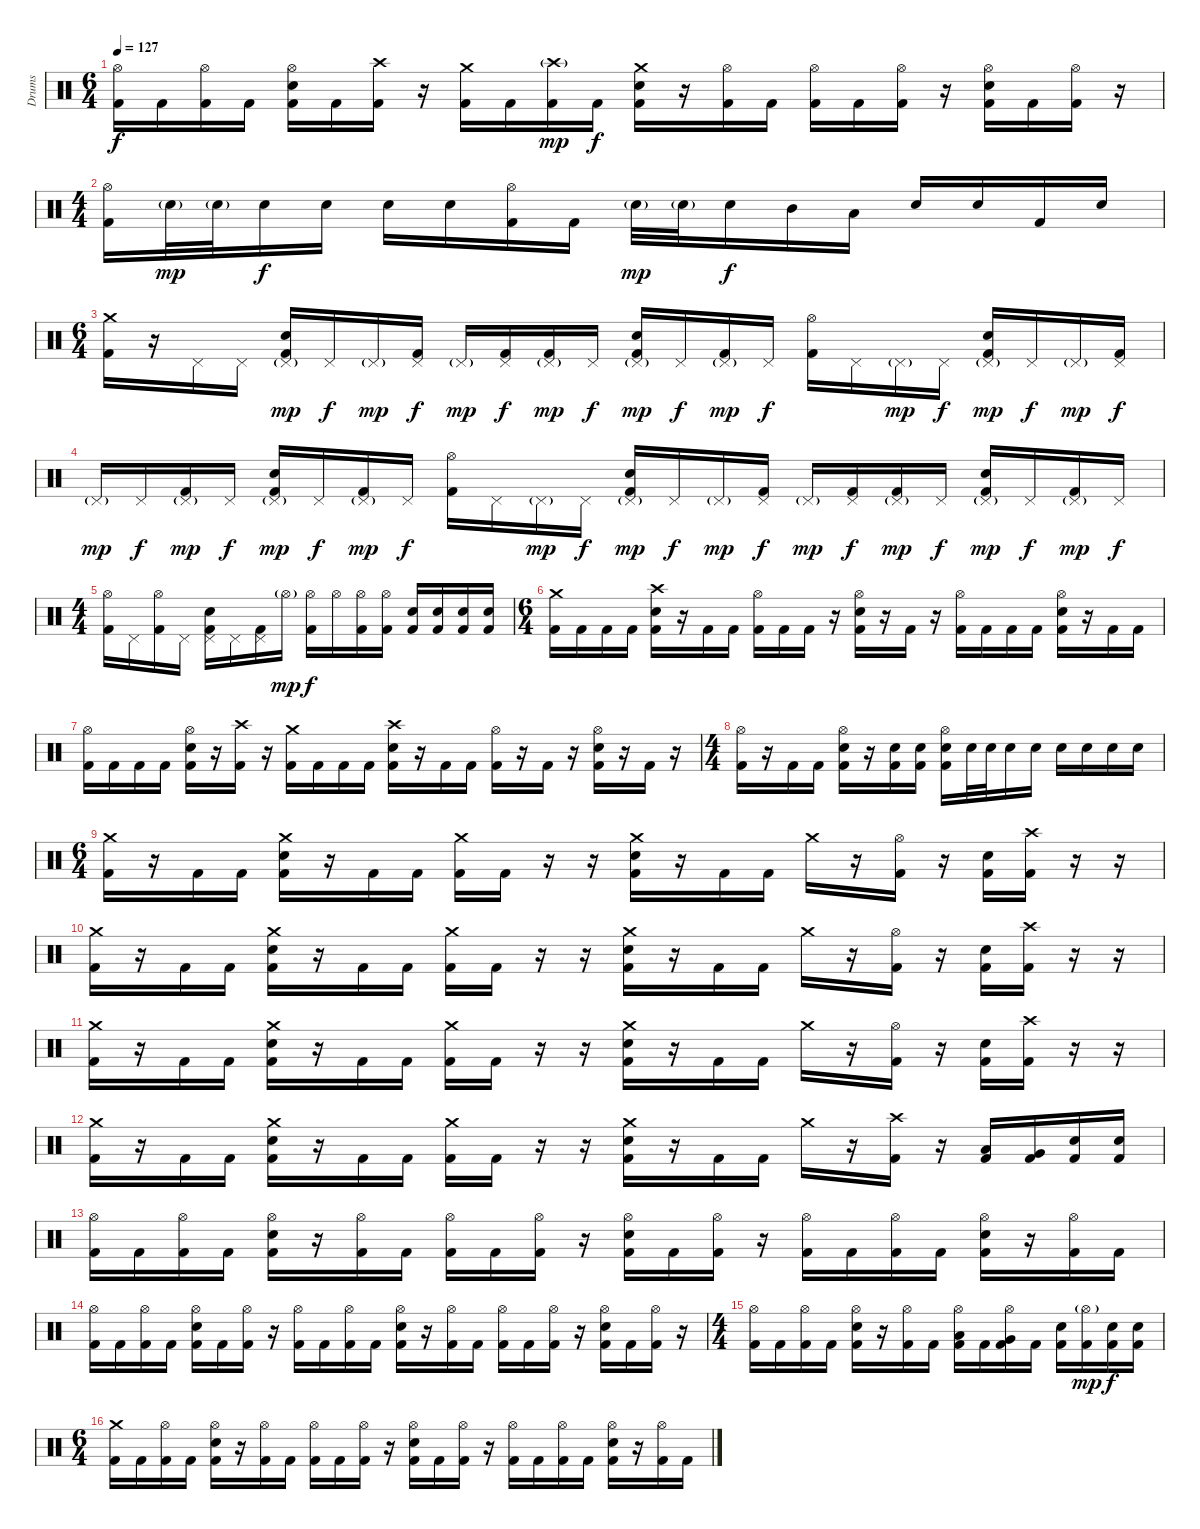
\track ("Drums" "Drums") {instrument percussion}
\staff {score}
\articulation defaults
\ts (6 4)
\tempo 127
\clef neutral
\ks c
("Hi-Hat (open)" "Kick (hit) 2").16{dy f} "Kick (hit) 2".16 ("Hi-Hat (open)" "Kick (hit) 2").16 "Kick (hit) 2".16 ("Hi-Hat (open)" "Electric Snare (hit)" "Kick (hit) 2").16 "Kick (hit) 2".16 ("Crash high (hit)" "Kick (hit) 2").16 r.16 ("Crash medium (hit)" "Kick (hit) 2").16 "Kick (hit) 2".16 ("Crash high (hit)"{g} "Kick (hit) 2").16{dy mp} "Kick (hit) 2".16{dy f} ("Crash medium (hit)" "Electric Snare (hit)" "Kick (hit) 2").16 r.16 ("Hi-Hat (open)" "Kick (hit) 2").16 "Kick (hit) 2".16 ("Hi-Hat (open)" "Kick (hit) 2").16 "Kick (hit) 2".16 ("Hi-Hat (open)" "Kick (hit) 2").16 r.16 ("Hi-Hat (open)" "Electric Snare (hit)" "Kick (hit) 2").16 "Kick (hit) 2".16 ("Hi-Hat (open)" "Kick (hit) 2").16 r.16 |
\ts (4 4)
("Hi-Hat (open)" "Kick (hit) 2").16 "Electric Snare (hit)"{g}.32{dy mp} "Electric Snare (hit)"{g}.32 "Electric Snare (hit)".16{dy f} "Electric Snare (hit)".16 "Electric Snare (hit)".16 "Electric Snare (hit)".16 ("Hi-Hat (open)" "Kick (hit) 2").16 "Kick (hit) 2".16 "Electric Snare (hit)"{g}.32{dy mp} "Electric Snare (hit)"{g}.32 "Electric Snare (hit)".16{dy f} "Mid Tom (hit)".16 "Low Tom (hit)".16 "Electric Snare (hit)".16 "Electric Snare (hit)".16 "Kick (hit) 2".16 "Electric Snare (hit)".16 |
\ts (6 4)
("Crash medium (hit)" "Kick (hit) 2").16 r.16 "Pedal Hi-Hat (hit)".16 "Pedal Hi-Hat (hit)".16 ("Pedal Hi-Hat (hit)"{g} "Electric Snare (hit)" "Kick (hit) 2").16{dy mp} "Pedal Hi-Hat (hit)".16{dy f} "Pedal Hi-Hat (hit)"{g}.16{dy mp} ("Pedal Hi-Hat (hit)" "Kick (hit) 2").16{dy f} "Pedal Hi-Hat (hit)"{g}.16{dy mp} ("Pedal Hi-Hat (hit)" "Kick (hit) 2").16{dy f} ("Pedal Hi-Hat (hit)"{g} "Kick (hit) 2").16{dy mp} "Pedal Hi-Hat (hit)".16{dy f} ("Pedal Hi-Hat (hit)"{g} "Electric Snare (hit)" "Kick (hit) 2").16{dy mp} "Pedal Hi-Hat (hit)".16{dy f} ("Pedal Hi-Hat (hit)"{g} "Kick (hit) 2").16{dy mp} "Pedal Hi-Hat (hit)".16{dy f} ("Hi-Hat (open)" "Kick (hit) 2").16 "Pedal Hi-Hat (hit)".16 "Pedal Hi-Hat (hit)"{g}.16{dy mp} "Pedal Hi-Hat (hit)".16{dy f} ("Pedal Hi-Hat (hit)"{g} "Electric Snare (hit)" "Kick (hit) 2").16{dy mp} "Pedal Hi-Hat (hit)".16{dy f} "Pedal Hi-Hat (hit)"{g}.16{dy mp} ("Pedal Hi-Hat (hit)" "Kick (hit) 2").16{dy f} |
"Pedal Hi-Hat (hit)"{g}.16{dy mp} "Pedal Hi-Hat (hit)".16{dy f} ("Pedal Hi-Hat (hit)"{g} "Kick (hit) 2").16{dy mp} "Pedal Hi-Hat (hit)".16{dy f} ("Pedal Hi-Hat (hit)"{g} "Electric Snare (hit)" "Kick (hit) 2").16{dy mp} "Pedal Hi-Hat (hit)".16{dy f} ("Pedal Hi-Hat (hit)"{g} "Kick (hit) 2").16{dy mp} "Pedal Hi-Hat (hit)".16{dy f} ("Hi-Hat (open)" "Kick (hit) 2").16 "Pedal Hi-Hat (hit)".16 "Pedal Hi-Hat (hit)"{g}.16{dy mp} "Pedal Hi-Hat (hit)".16{dy f} ("Pedal Hi-Hat (hit)"{g} "Electric Snare (hit)" "Kick (hit) 2").16{dy mp} "Pedal Hi-Hat (hit)".16{dy f} "Pedal Hi-Hat (hit)"{g}.16{dy mp} ("Pedal Hi-Hat (hit)" "Kick (hit) 2").16{dy f} "Pedal Hi-Hat (hit)"{g}.16{dy mp} ("Pedal Hi-Hat (hit)" "Kick (hit) 2").16{dy f} ("Pedal Hi-Hat (hit)"{g} "Kick (hit) 2").16{dy mp} "Pedal Hi-Hat (hit)".16{dy f} ("Pedal Hi-Hat (hit)"{g} "Electric Snare (hit)" "Kick (hit) 2").16{dy mp} "Pedal Hi-Hat (hit)".16{dy f} ("Pedal Hi-Hat (hit)"{g} "Kick (hit) 2").16{dy mp} "Pedal Hi-Hat (hit)".16{dy f} |
\ts (4 4)
("Hi-Hat (open)" "Kick (hit) 2").16 "Pedal Hi-Hat (hit)".16 ("Hi-Hat (open)" "Kick (hit) 2").16 "Pedal Hi-Hat (hit)".16 ("Pedal Hi-Hat (hit)" "Electric Snare (hit)" "Kick (hit) 2").16 "Pedal Hi-Hat (hit)".16 ("Pedal Hi-Hat (hit)" "Kick (hit) 2").16 "Hi-Hat (open)"{g}.16{dy mp} ("Hi-Hat (open)" "Kick (hit) 2").16{dy f} "Hi-Hat (open)".16 ("Hi-Hat (open)" "Kick (hit) 2").16 ("Hi-Hat (open)" "Kick (hit) 2").16 ("Electric Snare (hit)" "Kick (hit) 2").16 ("Electric Snare (hit)" "Kick (hit) 2").16 ("Electric Snare (hit)" "Kick (hit) 2").16 ("Electric Snare (hit)" "Kick (hit) 2").16 |
\ts (6 4)
("Crash medium (hit)" "Kick (hit) 2").16 "Kick (hit) 2".16 "Kick (hit) 2".16 "Kick (hit) 2".16 ("Crash high (hit)" "Electric Snare (hit)" "Kick (hit) 2").16 r.16 "Kick (hit) 2".16 "Kick (hit) 2".16 ("Hi-Hat (open)" "Kick (hit) 2").16 "Kick (hit) 2".16 "Kick (hit) 2".16 r.16 ("Hi-Hat (open)" "Electric Snare (hit)" "Kick (hit) 2").16 r.16 "Kick (hit) 2".16 r.16 ("Hi-Hat (open)" "Kick (hit) 2").16 "Kick (hit) 2".16 "Kick (hit) 2".16 "Kick (hit) 2".16 ("Hi-Hat (open)" "Electric Snare (hit)" "Kick (hit) 2").16 r.16 "Kick (hit) 2".16 "Kick (hit) 2".16 |
("Hi-Hat (open)" "Kick (hit) 2").16 "Kick (hit) 2".16 "Kick (hit) 2".16 "Kick (hit) 2".16 ("Hi-Hat (open)" "Electric Snare (hit)" "Kick (hit) 2").16 r.16 ("Crash high (hit)" "Kick (hit) 2").16 r.16 ("Crash medium (hit)" "Kick (hit) 2").16 "Kick (hit) 2".16 "Kick (hit) 2".16 "Kick (hit) 2".16 ("Crash high (hit)" "Electric Snare (hit)" "Kick (hit) 2").16 r.16 "Kick (hit) 2".16 "Kick (hit) 2".16 ("Hi-Hat (open)" "Kick (hit) 2").16 r.16 "Kick (hit) 2".16 r.16 ("Hi-Hat (open)" "Electric Snare (hit)" "Kick (hit) 2").16 r.16 "Kick (hit) 2".16 r.16 |
\ts (4 4)
("Hi-Hat (open)" "Kick (hit) 2").16 r.16 "Kick (hit) 2".16 "Kick (hit) 2".16 ("Hi-Hat (open)" "Electric Snare (hit)" "Kick (hit) 2").16 r.16 ("Electric Snare (hit)" "Kick (hit) 2").16 ("Electric Snare (hit)" "Kick (hit) 2").16 ("Hi-Hat (open)" "Electric Snare (hit)" "Kick (hit) 2").16 "Electric Snare (hit)".32 "Electric Snare (hit)".32 "Electric Snare (hit)".16 "Electric Snare (hit)".16 "Electric Snare (hit)".16 "Electric Snare (hit)".16 "Electric Snare (hit)".16 "Electric Snare (hit)".16 |
\ts (6 4)
\section ("" "")
("Crash medium (hit)" "Kick (hit) 2").16 r.16 "Kick (hit) 2".16 "Kick (hit) 2".16 ("Crash medium (hit)" "Electric Snare (hit)" "Kick (hit) 2").16 r.16 "Kick (hit) 2".16 "Kick (hit) 2".16 ("Crash medium (hit)" "Kick (hit) 2").16 "Kick (hit) 2".16 r.16 r.16 ("Crash medium (hit)" "Electric Snare (hit)" "Kick (hit) 2").16 r.16 "Kick (hit) 2".16 "Kick (hit) 2".16 "Crash medium (hit)".16 r.16 ("Hi-Hat (open)" "Kick (hit) 2").16 r.16 ("Electric Snare (hit)" "Kick (hit) 2").16 ("Crash high (hit)" "Kick (hit) 2").16 r.16 r.16 |
("Crash medium (hit)" "Kick (hit) 2").16 r.16 "Kick (hit) 2".16 "Kick (hit) 2".16 ("Crash medium (hit)" "Electric Snare (hit)" "Kick (hit) 2").16 r.16 "Kick (hit) 2".16 "Kick (hit) 2".16 ("Crash medium (hit)" "Kick (hit) 2").16 "Kick (hit) 2".16 r.16 r.16 ("Crash medium (hit)" "Electric Snare (hit)" "Kick (hit) 2").16 r.16 "Kick (hit) 2".16 "Kick (hit) 2".16 "Crash medium (hit)".16 r.16 ("Hi-Hat (open)" "Kick (hit) 2").16 r.16 ("Electric Snare (hit)" "Kick (hit) 2").16 ("Crash high (hit)" "Kick (hit) 2").16 r.16 r.16 |
("Crash medium (hit)" "Kick (hit) 2").16 r.16 "Kick (hit) 2".16 "Kick (hit) 2".16 ("Crash medium (hit)" "Electric Snare (hit)" "Kick (hit) 2").16 r.16 "Kick (hit) 2".16 "Kick (hit) 2".16 ("Crash medium (hit)" "Kick (hit) 2").16 "Kick (hit) 2".16 r.16 r.16 ("Crash medium (hit)" "Electric Snare (hit)" "Kick (hit) 2").16 r.16 "Kick (hit) 2".16 "Kick (hit) 2".16 "Crash medium (hit)".16 r.16 ("Hi-Hat (open)" "Kick (hit) 2").16 r.16 ("Electric Snare (hit)" "Kick (hit) 2").16 ("Crash high (hit)" "Kick (hit) 2").16 r.16 r.16 |
("Crash medium (hit)" "Kick (hit) 2").16 r.16 "Kick (hit) 2".16 "Kick (hit) 2".16 ("Crash medium (hit)" "Electric Snare (hit)" "Kick (hit) 2").16 r.16 "Kick (hit) 2".16 "Kick (hit) 2".16 ("Crash medium (hit)" "Kick (hit) 2").16 "Kick (hit) 2".16 r.16 r.16 ("Crash medium (hit)" "Electric Snare (hit)" "Kick (hit) 2").16 r.16 "Kick (hit) 2".16 "Kick (hit) 2".16 "Crash medium (hit)".16 r.16 ("Crash high (hit)" "Kick (hit) 2").16 r.16 ("Low Tom (hit)" "Kick (hit) 2").16 ("Very Low Tom (hit)" "Kick (hit) 2").16 ("Electric Snare (hit)" "Kick (hit) 2").16 ("Electric Snare (hit)" "Kick (hit) 2").16 |
\section ("" "")
("Hi-Hat (open)" "Kick (hit) 2").16 "Kick (hit) 2".16 ("Hi-Hat (open)" "Kick (hit) 2").16 "Kick (hit) 2".16 ("Hi-Hat (open)" "Electric Snare (hit)" "Kick (hit) 2").16 r.16 ("Hi-Hat (open)" "Kick (hit) 2").16 "Kick (hit) 2".16 ("Hi-Hat (open)" "Kick (hit) 2").16 "Kick (hit) 2".16 ("Hi-Hat (open)" "Kick (hit) 2").16 r.16 ("Hi-Hat (open)" "Electric Snare (hit)" "Kick (hit) 2").16 "Kick (hit) 2".16 ("Hi-Hat (open)" "Kick (hit) 2").16 r.16 ("Hi-Hat (open)" "Kick (hit) 2").16 "Kick (hit) 2".16 ("Hi-Hat (open)" "Kick (hit) 2").16 "Kick (hit) 2".16 ("Hi-Hat (open)" "Electric Snare (hit)" "Kick (hit) 2").16 r.16 ("Hi-Hat (open)" "Kick (hit) 2").16 "Kick (hit) 2".16 |
("Hi-Hat (open)" "Kick (hit) 2").16 "Kick (hit) 2".16 ("Hi-Hat (open)" "Kick (hit) 2").16 "Kick (hit) 2".16 ("Hi-Hat (open)" "Electric Snare (hit)" "Kick (hit) 2").16 "Kick (hit) 2".16 ("Hi-Hat (open)" "Kick (hit) 2").16 r.16 ("Hi-Hat (open)" "Kick (hit) 2").16 "Kick (hit) 2".16 ("Hi-Hat (open)" "Kick (hit) 2").16 "Kick (hit) 2".16 ("Hi-Hat (open)" "Electric Snare (hit)" "Kick (hit) 2").16 r.16 ("Hi-Hat (open)" "Kick (hit) 2").16 "Kick (hit) 2".16 ("Hi-Hat (open)" "Kick (hit) 2").16 "Kick (hit) 2".16 ("Hi-Hat (open)" "Kick (hit) 2").16 r.16 ("Hi-Hat (open)" "Electric Snare (hit)" "Kick (hit) 2").16 "Kick (hit) 2".16 ("Hi-Hat (open)" "Kick (hit) 2").16 r.16 |
\ts (4 4)
("Hi-Hat (open)" "Kick (hit) 2").16 "Kick (hit) 2".16 ("Hi-Hat (open)" "Kick (hit) 2").16 "Kick (hit) 2".16 ("Hi-Hat (open)" "Electric Snare (hit)" "Kick (hit) 2").16 r.16 ("Hi-Hat (open)" "Kick (hit) 2").16 "Kick (hit) 2".16 ("Hi-Hat (open)" "Low Tom (hit)" "Kick (hit) 2").16 "Kick (hit) 2".16 ("Hi-Hat (open)" "Very Low Tom (hit)" "Kick (hit) 2").16 "Kick (hit) 2".16 ("Electric Snare (hit)" "Kick (hit) 2").16 ("Hi-Hat (open)"{g} "Kick (hit) 2").16{dy mp} ("Electric Snare (hit)" "Kick (hit) 2").16{dy f} ("Electric Snare (hit)" "Kick (hit) 2").16 |
\ts (6 4)
("Crash medium (hit)" "Kick (hit) 2").16 "Kick (hit) 2".16 ("Hi-Hat (open)" "Kick (hit) 2").16 "Kick (hit) 2".16 ("Hi-Hat (open)" "Electric Snare (hit)" "Kick (hit) 2").16 r.16 ("Hi-Hat (open)" "Kick (hit) 2").16 "Kick (hit) 2".16 ("Hi-Hat (open)" "Kick (hit) 2").16 "Kick (hit) 2".16 ("Hi-Hat (open)" "Kick (hit) 2").16 r.16 ("Hi-Hat (open)" "Electric Snare (hit)" "Kick (hit) 2").16 "Kick (hit) 2".16 ("Hi-Hat (open)" "Kick (hit) 2").16 r.16 ("Hi-Hat (open)" "Kick (hit) 2").16 "Kick (hit) 2".16 ("Hi-Hat (open)" "Kick (hit) 2").16 "Kick (hit) 2".16 ("Hi-Hat (open)" "Electric Snare (hit)" "Kick (hit) 2").16 r.16 ("Hi-Hat (open)" "Kick (hit) 2").16 "Kick (hit) 2".16
